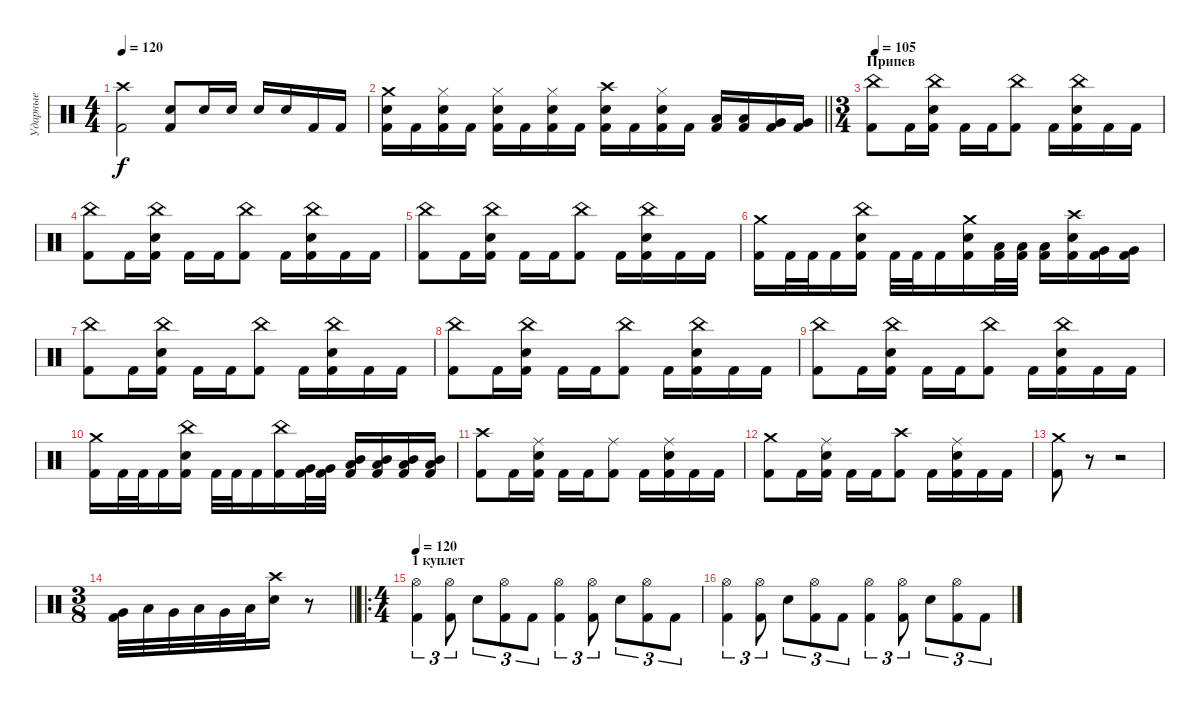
\track ("Ударные" "Ударные") {instrument percussion}
\staff {score}
\articulation defaults
\ts (4 4)
\tempo 120
\clef neutral
\ks c
("Crash high (hit)" "Kick (hit) 2").2{dy f} ("Snare (hit) 2" "Kick (hit) 2").8 "Snare (hit) 2".16 "Snare (hit) 2".16 "Snare (hit) 2".16 "Snare (hit) 2".16 "Kick (hit) 2".16 "Kick (hit) 2".16 |
\barLineRight lightlight
("Snare (hit) 2" "Crash medium (hit)" "Kick (hit) 2").16 "Kick (hit) 2".16 ("Snare (hit) 2" "Hi-Hat (closed)" "Kick (hit) 2").16 "Kick (hit) 2".16 ("Snare (hit) 2" "Hi-Hat (closed)" "Kick (hit) 2").16 "Kick (hit) 2".16 ("Snare (hit) 2" "Hi-Hat (closed)" "Kick (hit) 2").16 "Kick (hit) 2".16 ("Snare (hit) 2" "Crash high (hit)" "Kick (hit) 2").16 "Kick (hit) 2".16 ("Snare (hit) 2" "Hi-Hat (closed)" "Kick (hit) 2").16 "Kick (hit) 2".16 ("Low Tom (hit)" "Kick (hit) 2").16 ("Low Tom (hit)" "Kick (hit) 2").16 ("Very Low Tom (hit)" "Kick (hit) 2").16 ("Very Low Tom (hit)" "Kick (hit) 2").16 |
\ts (3 4)
\section ("" "Припев")
\tempo 105
("Kick (hit) 2" "China (hit)").8 "Kick (hit) 2".16 ("Kick (hit) 2" "Snare (hit) 2" "China (hit)").16 "Kick (hit) 2".16 "Kick (hit) 2".16 ("Kick (hit) 2" "China (hit)").8 "Kick (hit) 2".16 ("Kick (hit) 2" "Snare (hit) 2" "China (hit)").16 "Kick (hit) 2".16 "Kick (hit) 2".16 |
("Kick (hit) 2" "China (hit)").8 "Kick (hit) 2".16 ("Kick (hit) 2" "Snare (hit) 2" "China (hit)").16 "Kick (hit) 2".16 "Kick (hit) 2".16 ("Kick (hit) 2" "China (hit)").8 "Kick (hit) 2".16 ("Kick (hit) 2" "Snare (hit) 2" "China (hit)").16 "Kick (hit) 2".16 "Kick (hit) 2".16 |
("Kick (hit) 2" "China (hit)").8 "Kick (hit) 2".16 ("Kick (hit) 2" "Snare (hit) 2" "China (hit)").16 "Kick (hit) 2".16 "Kick (hit) 2".16 ("Kick (hit) 2" "China (hit)").8 "Kick (hit) 2".16 ("Kick (hit) 2" "Snare (hit) 2" "China (hit)").16 "Kick (hit) 2".16 "Kick (hit) 2".16 |
("Kick (hit) 2" "Crash medium (hit)").16 "Kick (hit) 2".32 "Kick (hit) 2".32 "Kick (hit) 2".16 ("Kick (hit) 2" "Snare (hit) 2" "China (hit)").16 "Kick (hit) 2".32 "Kick (hit) 2".32 "Kick (hit) 2".16 ("Kick (hit) 2" "Snare (hit) 2" "Crash medium (hit)").16 ("Kick (hit) 2" "Low Tom (hit)").32 ("Kick (hit) 2" "Low Tom (hit)").32 ("Kick (hit) 2" "Low Tom (hit)").16 ("Kick (hit) 2" "Snare (hit) 2" "Crash high (hit)").16 ("Kick (hit) 2" "Very Low Tom (hit)").16 ("Kick (hit) 2" "Very Low Tom (hit)").16 |
("Kick (hit) 2" "China (hit)").8 "Kick (hit) 2".16 ("Kick (hit) 2" "Snare (hit) 2" "China (hit)").16 "Kick (hit) 2".16 "Kick (hit) 2".16 ("Kick (hit) 2" "China (hit)").8 "Kick (hit) 2".16 ("Kick (hit) 2" "Snare (hit) 2" "China (hit)").16 "Kick (hit) 2".16 "Kick (hit) 2".16 |
("Kick (hit) 2" "China (hit)").8 "Kick (hit) 2".16 ("Kick (hit) 2" "Snare (hit) 2" "China (hit)").16 "Kick (hit) 2".16 "Kick (hit) 2".16 ("Kick (hit) 2" "China (hit)").8 "Kick (hit) 2".16 ("Kick (hit) 2" "Snare (hit) 2" "China (hit)").16 "Kick (hit) 2".16 "Kick (hit) 2".16 |
("Kick (hit) 2" "China (hit)").8 "Kick (hit) 2".16 ("Kick (hit) 2" "Snare (hit) 2" "China (hit)").16 "Kick (hit) 2".16 "Kick (hit) 2".16 ("Kick (hit) 2" "China (hit)").8 "Kick (hit) 2".16 ("Kick (hit) 2" "Snare (hit) 2" "China (hit)").16 "Kick (hit) 2".16 "Kick (hit) 2".16 |
("Kick (hit) 2" "Crash medium (hit)").16 "Kick (hit) 2".32 "Kick (hit) 2".32 "Kick (hit) 2".16 ("Kick (hit) 2" "Snare (hit) 2" "China (hit)").16 "Kick (hit) 2".32 "Kick (hit) 2".32 "Kick (hit) 2".16 ("Kick (hit) 2" "China (hit)").16 ("Kick (hit) 2" "Very Low Tom (hit)").32 ("Kick (hit) 2" "Very Low Tom (hit)").32 ("Kick (hit) 2" "Low Tom (hit)" "Mid Tom (hit)").16 ("Kick (hit) 2" "Low Tom (hit)" "Mid Tom (hit)").16 ("Kick (hit) 2" "Low Tom (hit)" "Mid Tom (hit)").16 ("Kick (hit) 2" "Low Tom (hit)" "Mid Tom (hit)").16 |
("Kick (hit) 2" "Crash high (hit)").8 "Kick (hit) 2".16 ("Kick (hit) 2" "Snare (hit) 2" "Ride (middle)").16 "Kick (hit) 2".16 "Kick (hit) 2".16 ("Kick (hit) 2" "Ride (middle)").8 "Kick (hit) 2".16 ("Kick (hit) 2" "Snare (hit) 2" "Ride (middle)").16 "Kick (hit) 2".16 "Kick (hit) 2".16 |
("Kick (hit) 2" "Crash medium (hit)").8 "Kick (hit) 2".16 ("Kick (hit) 2" "Snare (hit) 2" "Ride (middle)").16 "Kick (hit) 2".16 "Kick (hit) 2".16 ("Kick (hit) 2" "Crash high (hit)").8 "Kick (hit) 2".16 ("Kick (hit) 2" "Snare (hit) 2" "Ride (middle)").16 "Kick (hit) 2".16 "Kick (hit) 2".16 |
("Kick (hit) 2" "Crash medium (hit)").8 r.8 r.2 |
\ts (3 8)
\barLineRight lightlight
("Kick (hit) 2" "Very Low Tom (hit)").32 "Low Tom (hit)".32 "Very Low Tom (hit)".32 "Low Tom (hit)".32 "Very Low Tom (hit)".32 "Low Tom (hit)".32 ("Snare (hit) 2" "Crash high (hit)").16 r.8 |
\ro
\ts (4 4)
\section ("" "1 куплет")
\tempo 120
("Hi-Hat (open)" "Kick (hit) 2").4{tu (3 2)} ("Hi-Hat (open)" "Kick (hit) 2").8{tu (3 2)} "Snare (hit) 2".8{tu (3 2)} ("Hi-Hat (open)" "Kick (hit) 2").8{tu (3 2)} "Kick (hit) 2".8{tu (3 2)} ("Hi-Hat (open)" "Kick (hit) 2").4{tu (3 2)} ("Hi-Hat (open)" "Kick (hit) 2").8{tu (3 2)} "Snare (hit) 2".8{tu (3 2)} ("Hi-Hat (open)" "Kick (hit) 2").8{tu (3 2)} "Kick (hit) 2".8{tu (3 2)} |
("Hi-Hat (open)" "Kick (hit) 2").4{tu (3 2)} ("Hi-Hat (open)" "Kick (hit) 2").8{tu (3 2)} "Snare (hit) 2".8{tu (3 2)} ("Hi-Hat (open)" "Kick (hit) 2").8{tu (3 2)} "Kick (hit) 2".8{tu (3 2)} ("Hi-Hat (open)" "Kick (hit) 2").4{tu (3 2)} ("Hi-Hat (open)" "Kick (hit) 2").8{tu (3 2)} "Snare (hit) 2".8{tu (3 2)} ("Hi-Hat (open)" "Kick (hit) 2").8{tu (3 2)} "Kick (hit) 2".8{tu (3 2)}
